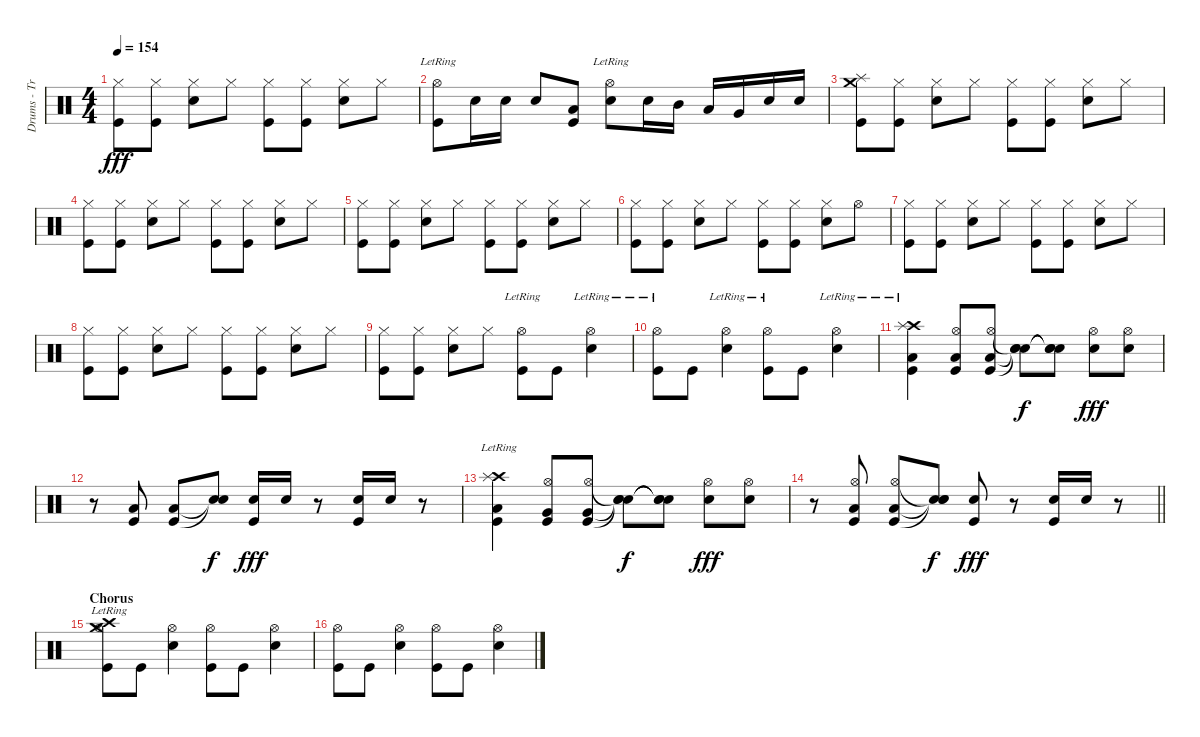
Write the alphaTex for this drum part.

\track ("Drums - Travis" "Drums - Tr") {instrument percussion}
\staff {score}
\articulation defaults
\ts (4 4)
\tempo 154
\clef neutral
\ks c
("Hi-Hat (closed)" "Kick (hit)").8{dy fff} ("Hi-Hat (closed)" "Kick (hit)").8 ("Hi-Hat (closed)" "Snare (hit) 2").8 "Hi-Hat (closed)".8 ("Hi-Hat (closed)" "Kick (hit)").8 ("Hi-Hat (closed)" "Kick (hit)").8 ("Hi-Hat (closed)" "Snare (hit) 2").8 "Hi-Hat (closed)".8 |
("Hi-Hat (open)"{lr} "Kick (hit)").8 "Snare (hit) 2".16 "Snare (hit) 2".16 "Snare (hit) 2".8 ("Low Tom (hit)" "Kick (hit)").8 ("Hi-Hat (open)"{lr} "Snare (hit) 2").8 "Snare (hit) 2".16 "Mid Tom (hit)".16 "Low Tom (hit)".16 "Very Low Tom (hit)".16 "Snare (hit) 2".16 "Snare (hit) 2".16 |
("Splash (hit)" "Crash medium (hit)" "Kick (hit)").8 ("Hi-Hat (closed)" "Kick (hit)").8 ("Hi-Hat (closed)" "Snare (hit) 2").8 "Hi-Hat (closed)".8 ("Hi-Hat (closed)" "Kick (hit)").8 ("Hi-Hat (closed)" "Kick (hit)").8 ("Hi-Hat (closed)" "Snare (hit) 2").8 "Hi-Hat (closed)".8 |
("Hi-Hat (closed)" "Kick (hit)").8 ("Hi-Hat (closed)" "Kick (hit)").8 ("Hi-Hat (closed)" "Snare (hit) 2").8 "Hi-Hat (closed)".8 ("Hi-Hat (closed)" "Kick (hit)").8 ("Hi-Hat (closed)" "Kick (hit)").8 ("Hi-Hat (closed)" "Snare (hit) 2").8 "Hi-Hat (closed)".8 |
("Hi-Hat (closed)" "Kick (hit)").8 ("Hi-Hat (closed)" "Kick (hit)").8 ("Hi-Hat (closed)" "Snare (hit) 2").8 "Hi-Hat (closed)".8 ("Hi-Hat (closed)" "Kick (hit)").8 ("Hi-Hat (closed)" "Kick (hit)").8 ("Hi-Hat (closed)" "Snare (hit) 2").8 "Hi-Hat (closed)".8 |
("Hi-Hat (closed)" "Kick (hit)").8 ("Hi-Hat (closed)" "Kick (hit)").8 ("Hi-Hat (closed)" "Snare (hit) 2").8 "Hi-Hat (closed)".8 ("Hi-Hat (closed)" "Kick (hit)").8 ("Hi-Hat (closed)" "Kick (hit)").8 ("Hi-Hat (closed)" "Snare (hit) 2").8 "Hi-Hat (open)".8 |
("Hi-Hat (closed)" "Kick (hit)").8 ("Hi-Hat (closed)" "Kick (hit)").8 ("Hi-Hat (closed)" "Snare (hit) 2").8 "Hi-Hat (closed)".8 ("Hi-Hat (closed)" "Kick (hit)").8 ("Hi-Hat (closed)" "Kick (hit)").8 ("Hi-Hat (closed)" "Snare (hit) 2").8 "Hi-Hat (closed)".8 |
("Hi-Hat (closed)" "Kick (hit)").8 ("Hi-Hat (closed)" "Kick (hit)").8 ("Hi-Hat (closed)" "Snare (hit) 2").8 "Hi-Hat (closed)".8 ("Hi-Hat (closed)" "Kick (hit)").8 ("Hi-Hat (closed)" "Kick (hit)").8 ("Hi-Hat (closed)" "Snare (hit) 2").8 "Hi-Hat (closed)".8 |
("Hi-Hat (closed)" "Kick (hit)").8 ("Hi-Hat (closed)" "Kick (hit)").8 ("Hi-Hat (closed)" "Snare (hit) 2").8 "Hi-Hat (closed)".8 ("Hi-Hat (open)"{lr} "Kick (hit)").8 "Kick (hit)".8 ("Hi-Hat (open)"{lr} "Snare (hit) 2").4 |
("Hi-Hat (open)"{lr} "Kick (hit)").8 "Kick (hit)".8 ("Hi-Hat (open)"{lr} "Snare (hit) 2").4 ("Hi-Hat (open)"{lr} "Kick (hit)").8 "Kick (hit)".8 ("Hi-Hat (open)"{lr} "Snare (hit) 2").4 |
("Crash high (hit)"{lr} "Splash (hit)"{lr} "Low Tom (hit)"{lr} "Kick (hit)"{lr}).4 ("Hi-Hat (open)" "Low Tom (hit)" "Kick (hit)").8 ("Hi-Hat (open)" "Low Tom (hit)" "Kick (hit)").8 ("Snare (hit)"{t} "Snare (hit)"{t} "Snare (hit)"{t}).8{dy f} ("Snare (hit)"{t} "Snare (hit)"{t} "Snare (hit)"{t}).8 ("Hi-Hat (open)" "Snare (hit) 2").8{dy fff} ("Hi-Hat (open)" "Snare (hit) 2").8 |
r.8 ("Low Tom (hit)" "Kick (hit)").8 ("Low Tom (hit)" "Kick (hit)").8 ("Snare (hit)"{t} "Snare (hit)"{t}).8{dy f} ("Snare (hit) 2" "Kick (hit)").16{dy fff} "Snare (hit) 2".16 r.8 ("Snare (hit) 2" "Kick (hit)").16 "Snare (hit) 2".16 r.8 |
("Crash high (hit)"{lr} "Splash (hit)"{lr} "Low Tom (hit)"{lr} "Kick (hit)"{lr}).4 ("Hi-Hat (open)" "Very Low Tom (hit)" "Kick (hit)").8 ("Hi-Hat (open)" "Very Low Tom (hit)" "Kick (hit)").8 ("Snare (hit)"{t} "Snare (hit)"{t} "Snare (hit)"{t}).8{dy f} ("Snare (hit)"{t} "Snare (hit)"{t} "Snare (hit)"{t}).8 ("Hi-Hat (open)" "Snare (hit) 2").8{dy fff} ("Hi-Hat (open)" "Snare (hit) 2").8 |
\barLineRight lightlight
r.8 ("Hi-Hat (open)" "Low Tom (hit)" "Kick (hit)").8 ("Hi-Hat (open)" "Low Tom (hit)" "Kick (hit)").8 ("Snare (hit)"{t} "Snare (hit)"{t} "Snare (hit)"{t}).8{dy f} ("Snare (hit) 2" "Kick (hit)").8{dy fff} r.8 ("Snare (hit) 2" "Kick (hit)").16 "Snare (hit) 2".16 r.8 |
\section ("" "Chorus")
("Crash high (hit)"{lr} "Hi-Hat (open)" "Crash medium (hit)"{lr} "Kick (hit)").8 "Kick (hit)".8 ("Hi-Hat (open)" "Snare (hit) 2").4 ("Hi-Hat (open)" "Kick (hit)").8 "Kick (hit)".8 ("Hi-Hat (open)" "Snare (hit) 2").4 |
("Hi-Hat (open)" "Kick (hit)").8 "Kick (hit)".8 ("Hi-Hat (open)" "Snare (hit) 2").4 ("Hi-Hat (open)" "Kick (hit)").8 "Kick (hit)".8 ("Hi-Hat (open)" "Snare (hit) 2").4
